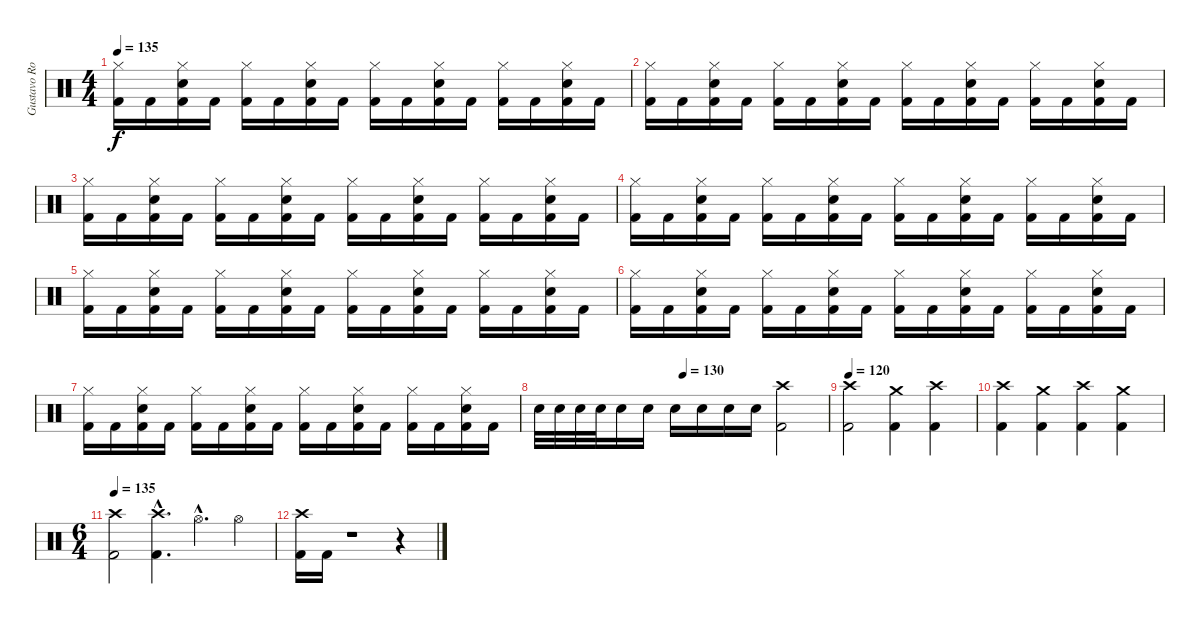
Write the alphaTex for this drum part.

\track ("Gustavo Rowek" "Gustavo Ro") {instrument percussion}
\staff {score}
\articulation defaults
\ts (4 4)
\tempo 135
\clef neutral
\ks c
("Kick (hit) 2" "Hi-Hat (closed)").16{dy f} "Kick (hit) 2".16 ("Kick (hit) 2" "Hi-Hat (closed)" "Electric Snare (hit)").16 "Kick (hit) 2".16 ("Kick (hit) 2" "Hi-Hat (closed)").16 "Kick (hit) 2".16 ("Kick (hit) 2" "Hi-Hat (closed)" "Electric Snare (hit)").16 "Kick (hit) 2".16 ("Kick (hit) 2" "Hi-Hat (closed)").16 "Kick (hit) 2".16 ("Kick (hit) 2" "Hi-Hat (closed)" "Electric Snare (hit)").16 "Kick (hit) 2".16 ("Kick (hit) 2" "Hi-Hat (closed)").16 "Kick (hit) 2".16 ("Kick (hit) 2" "Hi-Hat (closed)" "Electric Snare (hit)").16 "Kick (hit) 2".16 |
("Kick (hit) 2" "Hi-Hat (closed)").16 "Kick (hit) 2".16 ("Kick (hit) 2" "Hi-Hat (closed)" "Electric Snare (hit)").16 "Kick (hit) 2".16 ("Kick (hit) 2" "Hi-Hat (closed)").16 "Kick (hit) 2".16 ("Kick (hit) 2" "Hi-Hat (closed)" "Electric Snare (hit)").16 "Kick (hit) 2".16 ("Kick (hit) 2" "Hi-Hat (closed)").16 "Kick (hit) 2".16 ("Kick (hit) 2" "Hi-Hat (closed)" "Electric Snare (hit)").16 "Kick (hit) 2".16 ("Kick (hit) 2" "Hi-Hat (closed)").16 "Kick (hit) 2".16 ("Kick (hit) 2" "Hi-Hat (closed)" "Electric Snare (hit)").16 "Kick (hit) 2".16 |
("Kick (hit) 2" "Hi-Hat (closed)").16 "Kick (hit) 2".16 ("Kick (hit) 2" "Hi-Hat (closed)" "Electric Snare (hit)").16 "Kick (hit) 2".16 ("Kick (hit) 2" "Hi-Hat (closed)").16 "Kick (hit) 2".16 ("Kick (hit) 2" "Hi-Hat (closed)" "Electric Snare (hit)").16 "Kick (hit) 2".16 ("Kick (hit) 2" "Hi-Hat (closed)").16 "Kick (hit) 2".16 ("Kick (hit) 2" "Hi-Hat (closed)" "Electric Snare (hit)").16 "Kick (hit) 2".16 ("Kick (hit) 2" "Hi-Hat (closed)").16 "Kick (hit) 2".16 ("Kick (hit) 2" "Hi-Hat (closed)" "Electric Snare (hit)").16 "Kick (hit) 2".16 |
("Kick (hit) 2" "Hi-Hat (closed)").16 "Kick (hit) 2".16 ("Kick (hit) 2" "Hi-Hat (closed)" "Electric Snare (hit)").16 "Kick (hit) 2".16 ("Kick (hit) 2" "Hi-Hat (closed)").16 "Kick (hit) 2".16 ("Kick (hit) 2" "Hi-Hat (closed)" "Electric Snare (hit)").16 "Kick (hit) 2".16 ("Kick (hit) 2" "Hi-Hat (closed)").16 "Kick (hit) 2".16 ("Kick (hit) 2" "Hi-Hat (closed)" "Electric Snare (hit)").16 "Kick (hit) 2".16 ("Kick (hit) 2" "Hi-Hat (closed)").16 "Kick (hit) 2".16 ("Kick (hit) 2" "Hi-Hat (closed)" "Electric Snare (hit)").16 "Kick (hit) 2".16 |
("Kick (hit) 2" "Hi-Hat (closed)").16 "Kick (hit) 2".16 ("Kick (hit) 2" "Hi-Hat (closed)" "Electric Snare (hit)").16 "Kick (hit) 2".16 ("Kick (hit) 2" "Hi-Hat (closed)").16 "Kick (hit) 2".16 ("Kick (hit) 2" "Hi-Hat (closed)" "Electric Snare (hit)").16 "Kick (hit) 2".16 ("Kick (hit) 2" "Hi-Hat (closed)").16 "Kick (hit) 2".16 ("Kick (hit) 2" "Hi-Hat (closed)" "Electric Snare (hit)").16 "Kick (hit) 2".16 ("Kick (hit) 2" "Hi-Hat (closed)").16 "Kick (hit) 2".16 ("Kick (hit) 2" "Hi-Hat (closed)" "Electric Snare (hit)").16 "Kick (hit) 2".16 |
("Kick (hit) 2" "Hi-Hat (closed)").16 "Kick (hit) 2".16 ("Kick (hit) 2" "Hi-Hat (closed)" "Electric Snare (hit)").16 "Kick (hit) 2".16 ("Kick (hit) 2" "Hi-Hat (closed)").16 "Kick (hit) 2".16 ("Kick (hit) 2" "Hi-Hat (closed)" "Electric Snare (hit)").16 "Kick (hit) 2".16 ("Kick (hit) 2" "Hi-Hat (closed)").16 "Kick (hit) 2".16 ("Kick (hit) 2" "Hi-Hat (closed)" "Electric Snare (hit)").16 "Kick (hit) 2".16 ("Kick (hit) 2" "Hi-Hat (closed)").16 "Kick (hit) 2".16 ("Kick (hit) 2" "Hi-Hat (closed)" "Electric Snare (hit)").16 "Kick (hit) 2".16 |
("Kick (hit) 2" "Hi-Hat (closed)").16 "Kick (hit) 2".16 ("Kick (hit) 2" "Hi-Hat (closed)" "Electric Snare (hit)").16 "Kick (hit) 2".16 ("Kick (hit) 2" "Hi-Hat (closed)").16 "Kick (hit) 2".16 ("Kick (hit) 2" "Hi-Hat (closed)" "Electric Snare (hit)").16 "Kick (hit) 2".16 ("Kick (hit) 2" "Hi-Hat (closed)").16 "Kick (hit) 2".16 ("Kick (hit) 2" "Hi-Hat (closed)" "Electric Snare (hit)").16 "Kick (hit) 2".16 ("Kick (hit) 2" "Hi-Hat (closed)").16 "Kick (hit) 2".16 ("Kick (hit) 2" "Hi-Hat (closed)" "Electric Snare (hit)").16 "Kick (hit) 2".16 |
\tempo (130 0.5)
"Electric Snare (hit)".32 "Electric Snare (hit)".32 "Electric Snare (hit)".32 "Electric Snare (hit)".32 "Electric Snare (hit)".16 "Electric Snare (hit)".16 "Electric Snare (hit)".16 "Electric Snare (hit)".16 "Electric Snare (hit)".16 "Electric Snare (hit)".16 ("Kick (hit) 2" "Crash high (hit)").2 |
\tempo 120
("Kick (hit) 2" "Crash high (hit)").2 ("Kick (hit) 2" "Crash medium (hit)").4 ("Kick (hit) 2" "Crash high (hit)").4 |
("Crash high (hit)" "Kick (hit) 2").4 ("Crash medium (hit)" "Kick (hit) 2").4 ("Crash high (hit)" "Kick (hit) 2").4 ("Crash medium (hit)" "Kick (hit) 2").4 |
\ts (6 4)
\tempo 135
("Kick (hit) 2" "Crash high (hit)").2 ("Kick (hit) 2"{hac} "Crash high (hit)"{hac}).4{d} "Hi-Hat (open)"{hac}.4{d} "Hi-Hat (open)".4 |
("Kick (hit) 2" "Crash high (hit)").16 "Kick (hit) 2".16 r.1 r.4
